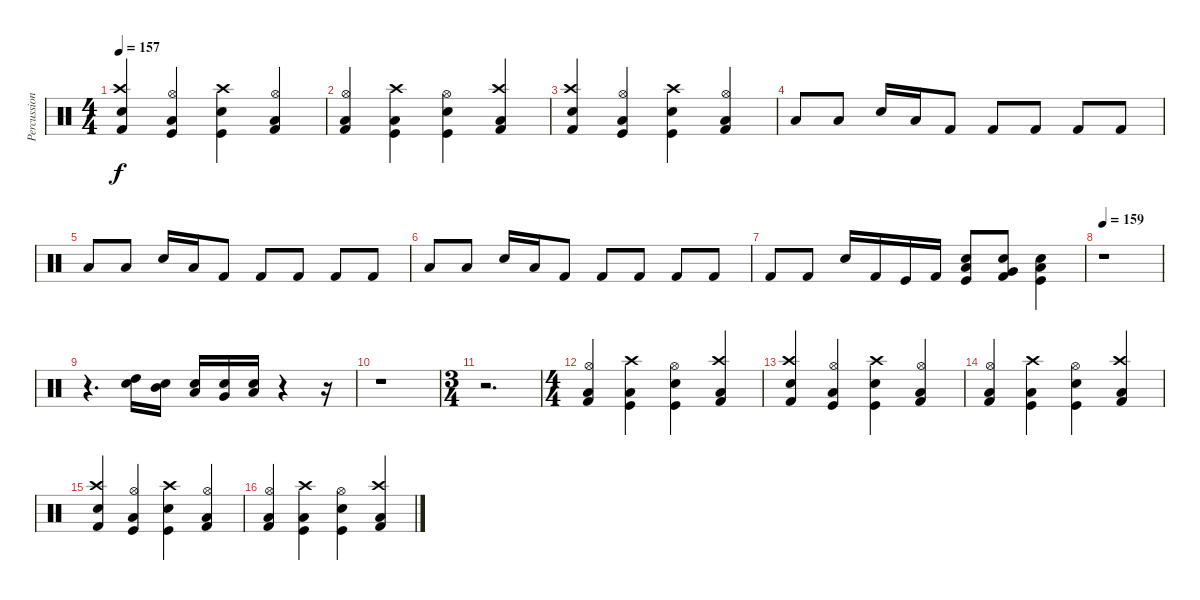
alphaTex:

\track ("Percussions" "Percussion") {instrument percussion}
\staff {score}
\articulation defaults
\ts (4 4)
\tempo 157
\clef neutral
\ks c
("Kick (hit) 2" "Crash high (hit)" "Electric Snare (hit)").4{dy f} ("Kick (hit)" "Hi-Hat (open)" "Low Tom (hit)").4 ("Kick (hit)" "Crash high (hit)" "Electric Snare (hit)").4 ("Kick (hit) 2" "Hi-Hat (open)" "Low Tom (hit)").4 |
("Kick (hit) 2" "Hi-Hat (open)" "Low Tom (hit)").4 ("Kick (hit)" "Crash high (hit)" "Low Tom (hit)").4 ("Kick (hit)" "Hi-Hat (open)" "Electric Snare (hit)").4 ("Kick (hit) 2" "Crash high (hit)" "Low Tom (hit)").4 |
("Kick (hit) 2" "Crash high (hit)" "Electric Snare (hit)").4 ("Kick (hit)" "Hi-Hat (open)" "Low Tom (hit)").4 ("Kick (hit)" "Crash high (hit)" "Electric Snare (hit)").4 ("Kick (hit) 2" "Hi-Hat (open)" "Low Tom (hit)").4 |
"Low Tom (hit)".8 "Low Tom (hit)".8 "Electric Snare (hit)".16 "Low Tom (hit)".16 "Kick (hit) 2".8 "Kick (hit) 2".8 "Kick (hit) 2".8 "Kick (hit) 2".8 "Kick (hit) 2".8 |
"Low Tom (hit)".8 "Low Tom (hit)".8 "Electric Snare (hit)".16 "Low Tom (hit)".16 "Kick (hit) 2".8 "Kick (hit) 2".8 "Kick (hit) 2".8 "Kick (hit) 2".8 "Kick (hit) 2".8 |
"Low Tom (hit)".8 "Low Tom (hit)".8 "Electric Snare (hit)".16 "Low Tom (hit)".16 "Kick (hit) 2".8 "Kick (hit) 2".8 "Kick (hit) 2".8 "Kick (hit) 2".8 "Kick (hit) 2".8 |
"Kick (hit) 2".8 "Kick (hit) 2".8 "Electric Snare (hit)".16 "Kick (hit) 2".16 "Kick (hit)".16 "Kick (hit) 2".16 ("Kick (hit)" "Electric Snare (hit)" "Low Tom (hit)").8 ("Kick (hit) 2" "Electric Snare (hit)" "Very Low Tom (hit)").8 ("Kick (hit)" "Electric Snare (hit)" "Low Tom (hit)").4 |
\tempo 159
r.1 |
r.4{d} ("High Tom (hit)" "Electric Snare (hit)").16{volume 7 balance 16} ("Mid Tom (hit)" "Electric Snare (hit)").16 ("Low Tom (hit)" "Electric Snare (hit)").16 ("Very Low Tom (hit)" "Electric Snare (hit)").16 ("Low Floor Tom (hit)" "Electric Snare (hit)").16 r.4 r.16 |
r.1 |
\ts (3 4)
r.2{d} |
\ts (4 4)
("Kick (hit) 2" "Hi-Hat (open)" "Low Tom (hit)").4{volume 14} ("Kick (hit)" "Crash high (hit)" "Low Tom (hit)").4 ("Kick (hit)" "Hi-Hat (open)" "Electric Snare (hit)").4 ("Kick (hit) 2" "Crash high (hit)" "Low Tom (hit)").4 |
("Kick (hit) 2" "Crash high (hit)" "Electric Snare (hit)").4 ("Kick (hit)" "Hi-Hat (open)" "Low Tom (hit)").4 ("Kick (hit)" "Crash high (hit)" "Electric Snare (hit)").4 ("Kick (hit) 2" "Hi-Hat (open)" "Low Tom (hit)").4 |
("Kick (hit) 2" "Hi-Hat (open)" "Low Tom (hit)").4 ("Kick (hit)" "Crash high (hit)" "Low Tom (hit)").4 ("Kick (hit)" "Hi-Hat (open)" "Electric Snare (hit)").4 ("Kick (hit) 2" "Crash high (hit)" "Low Tom (hit)").4 |
("Kick (hit) 2" "Crash high (hit)" "Electric Snare (hit)").4 ("Kick (hit)" "Hi-Hat (open)" "Low Tom (hit)").4 ("Kick (hit)" "Crash high (hit)" "Electric Snare (hit)").4 ("Kick (hit) 2" "Hi-Hat (open)" "Low Tom (hit)").4 |
("Kick (hit) 2" "Hi-Hat (open)" "Low Tom (hit)").4 ("Kick (hit)" "Crash high (hit)" "Low Tom (hit)").4 ("Kick (hit)" "Hi-Hat (open)" "Electric Snare (hit)").4 ("Kick (hit) 2" "Crash high (hit)" "Low Tom (hit)").4
